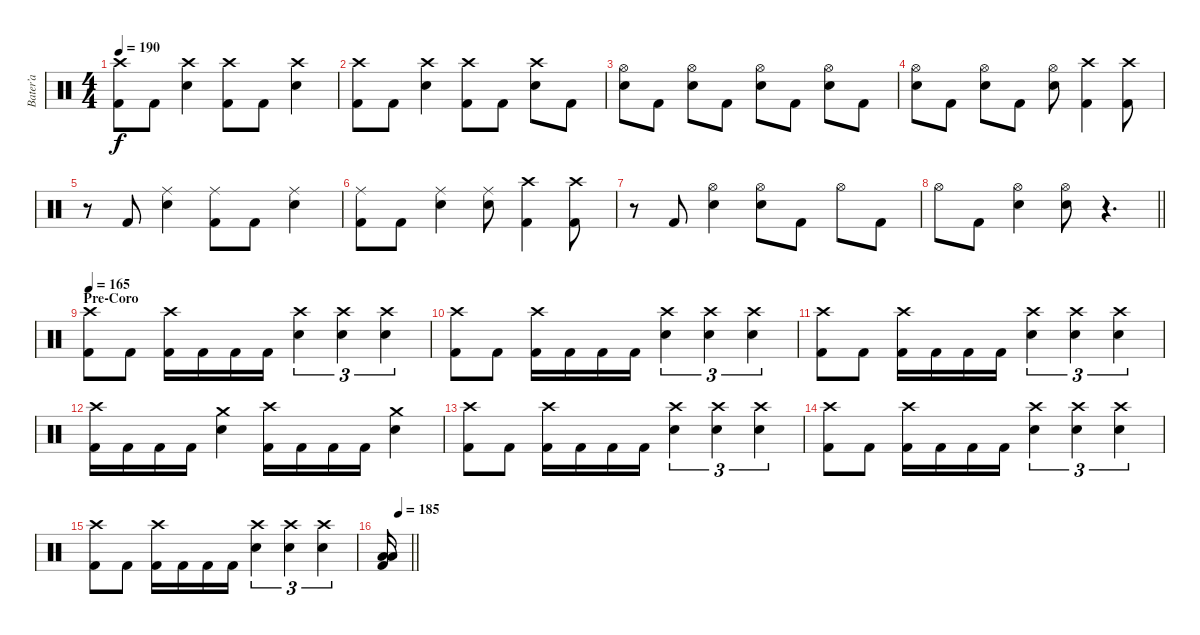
\track ("Bater’a" "Bater’a") {instrument percussion}
\staff {score}
\articulation defaults
\ts (4 4)
\tempo 190
\clef neutral
\ks c
("Crash high (hit)" "Kick (hit) 2").8{dy f} "Kick (hit) 2".8 ("Crash high (hit)" "Electric Snare (hit)").4 ("Crash high (hit)" "Kick (hit) 2").8 "Kick (hit) 2".8 ("Crash high (hit)" "Electric Snare (hit)").4 |
("Crash high (hit)" "Kick (hit) 2").8 "Kick (hit) 2".8 ("Crash high (hit)" "Electric Snare (hit)").4 ("Crash high (hit)" "Kick (hit) 2").8 "Kick (hit) 2".8 ("Crash high (hit)" "Electric Snare (hit)").8 "Kick (hit) 2".8 |
("Hi-Hat (open)" "Electric Snare (hit)").8 "Kick (hit) 2".8 ("Hi-Hat (open)" "Electric Snare (hit)").8 "Kick (hit) 2".8 ("Hi-Hat (open)" "Electric Snare (hit)").8 "Kick (hit) 2".8 ("Hi-Hat (open)" "Electric Snare (hit)").8 "Kick (hit) 2".8 |
("Hi-Hat (open)" "Electric Snare (hit)").8 "Kick (hit) 2".8 ("Hi-Hat (open)" "Electric Snare (hit)").8 "Kick (hit) 2".8 ("Hi-Hat (open)" "Electric Snare (hit)").8 ("Crash high (hit)" "Kick (hit) 2").4 ("Crash high (hit)" "Kick (hit) 2").8 |
r.8 "Kick (hit) 2".8 ("Ride (middle)" "Electric Snare (hit)").4 ("Ride (middle)" "Kick (hit) 2").8 "Kick (hit) 2".8 ("Ride (middle)" "Electric Snare (hit)").4 |
("Ride (middle)" "Kick (hit) 2").8 "Kick (hit) 2".8 ("Ride (middle)" "Electric Snare (hit)").4 ("Ride (middle)" "Electric Snare (hit)").8 ("Crash high (hit)" "Kick (hit) 2").4 ("Crash high (hit)" "Kick (hit) 2").8 |
r.8 "Kick (hit) 2".8 ("Hi-Hat (open)" "Electric Snare (hit)").4 ("Hi-Hat (open)" "Electric Snare (hit)").8 "Kick (hit) 2".8 "Hi-Hat (open)".8 "Kick (hit) 2".8 |
\barLineRight lightlight "Hi-Hat (open)".8 "Kick (hit) 2".8
("Hi-Hat (open)" "Electric Snare (hit)").4 ("Hi-Hat (open)" "Electric Snare (hit)").8 r.4{d} |
\section ("" "Pre-Coro")
\tempo 165
("Crash high (hit)" "Kick (hit) 2").8 "Kick (hit) 2".8 ("Crash high (hit)" "Kick (hit) 2").16 "Kick (hit) 2".16 "Kick (hit) 2".16 "Kick (hit) 2".16 ("Crash high (hit)" "Electric Snare (hit)").4{tu (3 2)} ("Crash high (hit)" "Electric Snare (hit)").4{tu (3 2)} ("Crash high (hit)" "Electric Snare (hit)").4{tu (3 2)} |
("Crash high (hit)" "Kick (hit) 2").8 "Kick (hit) 2".8 ("Crash high (hit)" "Kick (hit) 2").16 "Kick (hit) 2".16 "Kick (hit) 2".16 "Kick (hit) 2".16 ("Crash high (hit)" "Electric Snare (hit)").4{tu (3 2)} ("Crash high (hit)" "Electric Snare (hit)").4{tu (3 2)} ("Crash high (hit)" "Electric Snare (hit)").4{tu (3 2)} |
("Crash high (hit)" "Kick (hit) 2").8 "Kick (hit) 2".8 ("Crash high (hit)" "Kick (hit) 2").16 "Kick (hit) 2".16 "Kick (hit) 2".16 "Kick (hit) 2".16 ("Crash high (hit)" "Electric Snare (hit)").4{tu (3 2)} ("Crash high (hit)" "Electric Snare (hit)").4{tu (3 2)} ("Crash high (hit)" "Electric Snare (hit)").4{tu (3 2)} |
("Crash high (hit)" "Kick (hit) 2").16 "Kick (hit) 2".16 "Kick (hit) 2".16 "Kick (hit) 2".16 ("Crash medium (hit)" "Electric Snare (hit)").4 ("Crash high (hit)" "Kick (hit) 2").16 "Kick (hit) 2".16 "Kick (hit) 2".16 "Kick (hit) 2".16 ("Crash medium (hit)" "Electric Snare (hit)").4 |
("Crash high (hit)" "Kick (hit) 2").8 "Kick (hit) 2".8 ("Crash high (hit)" "Kick (hit) 2").16 "Kick (hit) 2".16 "Kick (hit) 2".16 "Kick (hit) 2".16 ("Crash high (hit)" "Electric Snare (hit)").4{tu (3 2)} ("Crash high (hit)" "Electric Snare (hit)").4{tu (3 2)} ("Crash high (hit)" "Electric Snare (hit)").4{tu (3 2)} |
("Crash high (hit)" "Kick (hit) 2").8 "Kick (hit) 2".8 ("Crash high (hit)" "Kick (hit) 2").16 "Kick (hit) 2".16 "Kick (hit) 2".16 "Kick (hit) 2".16 ("Crash high (hit)" "Electric Snare (hit)").4{tu (3 2)} ("Crash high (hit)" "Electric Snare (hit)").4{tu (3 2)} ("Crash high (hit)" "Electric Snare (hit)").4{tu (3 2)} |
("Crash high (hit)" "Kick (hit) 2").8 "Kick (hit) 2".8 ("Crash high (hit)" "Kick (hit) 2").16 "Kick (hit) 2".16 "Kick (hit) 2".16 "Kick (hit) 2".16 ("Crash high (hit)" "Electric Snare (hit)").4{tu (3 2)} ("Crash high (hit)" "Electric Snare (hit)").4{tu (3 2)} ("Crash high (hit)" "Electric Snare (hit)").4{tu (3 2)} |
\tempo (185 0.5)
\barLineRight lightlight
("Low Tom (hit)" "Low Floor Tom (hit)" "Kick (hit) 2").16
